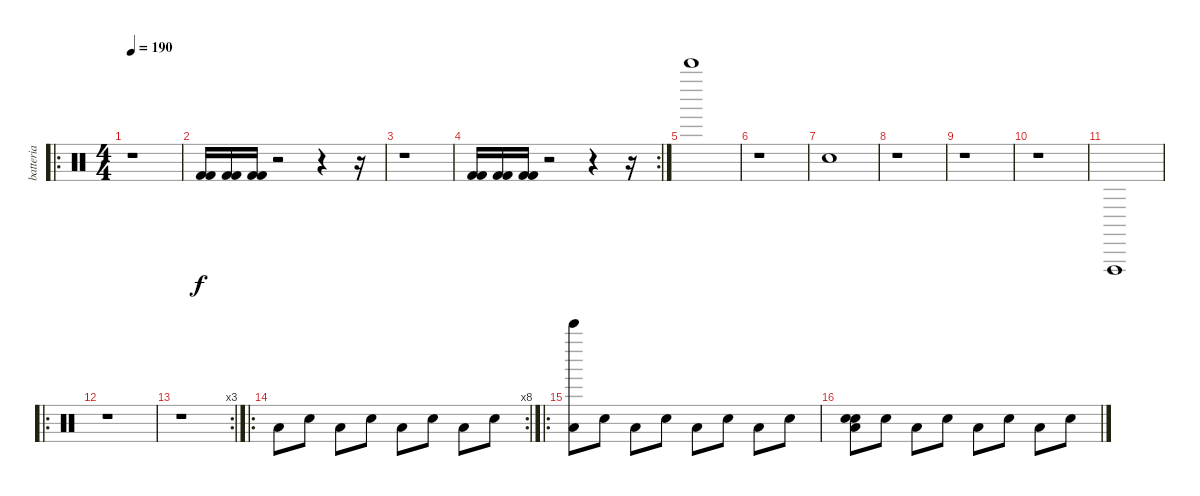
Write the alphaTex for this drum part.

\track ("batteria" "batteria") {instrument percussion}
\staff {score}
\articulation defaults
\ro
\ts (4 4)
\tempo 190
\clef neutral
\ks c
r.1{dy f} |
("Kick (hit) 2" "Kick (hit) 2").16 ("Kick (hit) 2" "Kick (hit) 2").16 ("Kick (hit) 2" "Kick (hit) 2").16 r.2 r.4 r.16 |
r.1 |
\rc 2
("Kick (hit) 2" "Kick (hit) 2").16 ("Kick (hit) 2" "Kick (hit) 2").16 ("Kick (hit) 2" "Kick (hit) 2").16 r.2 r.4 r.16 |
"Bell Tree (hit)".1 |
r.1 |
"Hand Clap (hit)".1 |
r.1 |
r.1 |
r.1 |
"Vibraslap (hit)".1 |
\ro
r.1 |
\rc 3
r.1 |
\ro
\rc 8 "Low Floor Tom (hit)".8 "Snare (hit) 2".8 "Low Floor Tom (hit)".8 "Snare (hit) 2".8 "Low Floor Tom (hit)".8 "Snare (hit) 2".8 "Low Floor Tom (hit)".8 "Snare (hit) 2".8
|
\ro
("Bell Tree (hit)" "Low Floor Tom (hit)").8 "Snare (hit) 2".8 "Low Floor Tom (hit)".8 "Snare (hit) 2".8 "Low Floor Tom (hit)".8 "Snare (hit) 2".8 "Low Floor Tom (hit)".8 "Snare (hit) 2".8 |
("Hand Clap (hit)" "Hand Clap (hit)" "Low Floor Tom (hit)").8 "Snare (hit) 2".8 "Low Floor Tom (hit)".8 "Snare (hit) 2".8 "Low Floor Tom (hit)".8 "Snare (hit) 2".8 "Low Floor Tom (hit)".8 "Snare (hit) 2".8
